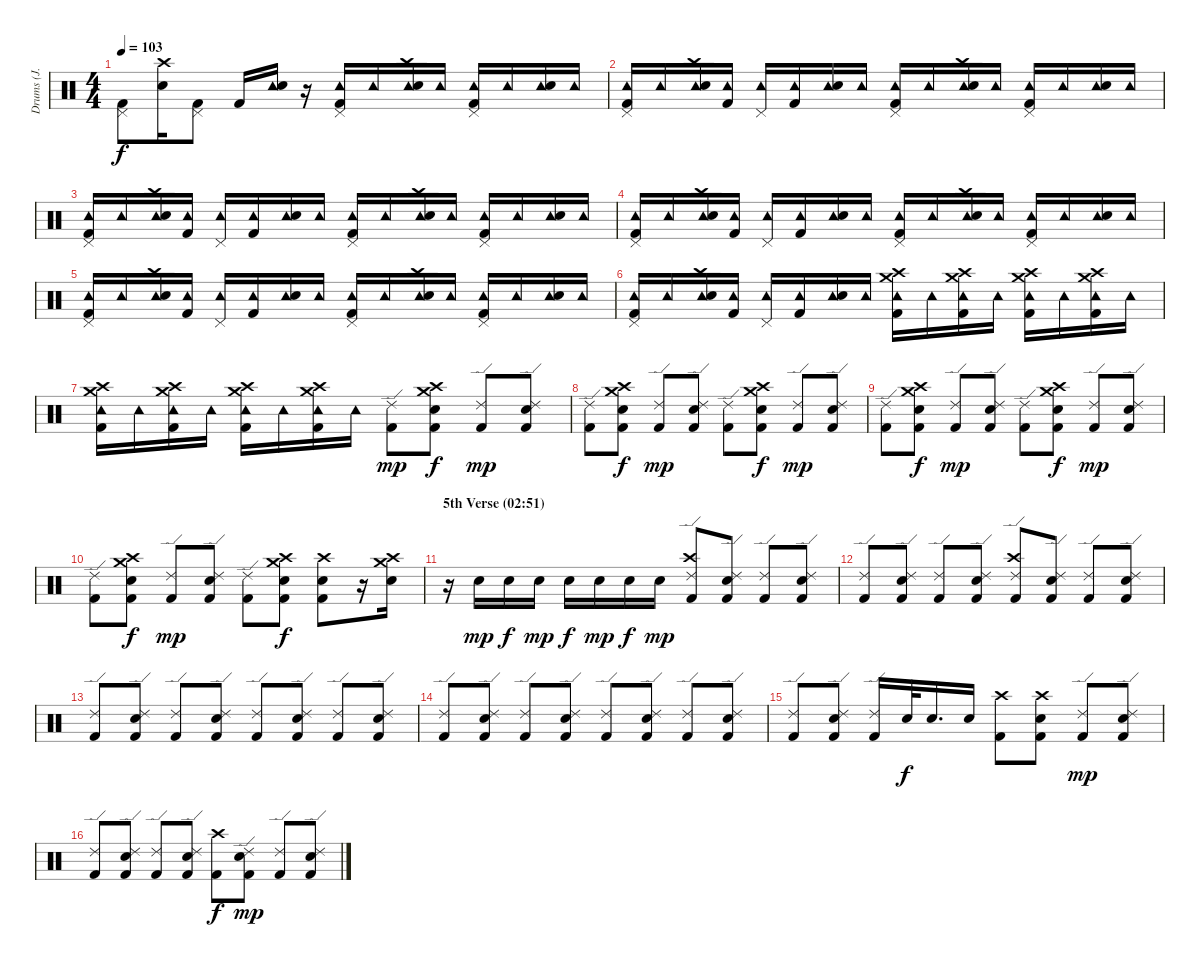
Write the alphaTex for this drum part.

\track ("Drums (J. Cramer)" "Drums (J. ") {instrument percussion}
\staff {score}
\articulation defaults
\ts (4 4)
\tempo 103
\clef neutral
\ks c
("Pedal Hi-Hat (hit)" "Kick (hit) 2").8{dy f} ("Electric Snare (hit)" "Crash high (hit)").16 ("Pedal Hi-Hat (hit)" "Kick (hit) 2").8 "Kick (hit) 2".16 ("Tambourine (hit)" "Electric Snare (hit)").16 r.16 ("Tambourine (hit)" "Pedal Hi-Hat (hit)" "Kick (hit) 2").16 "Tambourine (hit)".16 ("Tambourine (hit)" "Electric Snare (hit)" "Crash high (hit)").16 "Tambourine (hit)".16 ("Tambourine (hit)" "Pedal Hi-Hat (hit)" "Kick (hit) 2").16 "Tambourine (hit)".16 ("Tambourine (hit)" "Electric Snare (hit)").16 "Tambourine (hit)".16 |
("Tambourine (hit)" "Pedal Hi-Hat (hit)" "Kick (hit) 2").16 "Tambourine (hit)".16 ("Tambourine (hit)" "Electric Snare (hit)" "Crash high (hit)").16 ("Tambourine (hit)" "Kick (hit) 2").16 ("Tambourine (hit)" "Pedal Hi-Hat (hit)").16 ("Tambourine (hit)" "Kick (hit) 2").16 ("Tambourine (hit)" "Electric Snare (hit)").16 "Tambourine (hit)".16 ("Tambourine (hit)" "Pedal Hi-Hat (hit)" "Kick (hit) 2").16 "Tambourine (hit)".16 ("Tambourine (hit)" "Electric Snare (hit)" "Crash high (hit)").16 "Tambourine (hit)".16 ("Tambourine (hit)" "Pedal Hi-Hat (hit)" "Kick (hit) 2").16 "Tambourine (hit)".16 ("Tambourine (hit)" "Electric Snare (hit)").16 "Tambourine (hit)".16 |
("Tambourine (hit)" "Pedal Hi-Hat (hit)" "Kick (hit) 2").16 "Tambourine (hit)".16 ("Tambourine (hit)" "Electric Snare (hit)" "Crash high (hit)").16 ("Tambourine (hit)" "Kick (hit) 2").16 ("Tambourine (hit)" "Pedal Hi-Hat (hit)").16 ("Tambourine (hit)" "Kick (hit) 2").16 ("Tambourine (hit)" "Electric Snare (hit)").16 "Tambourine (hit)".16 ("Tambourine (hit)" "Pedal Hi-Hat (hit)" "Kick (hit) 2").16 "Tambourine (hit)".16 ("Tambourine (hit)" "Electric Snare (hit)" "Crash high (hit)").16 "Tambourine (hit)".16 ("Tambourine (hit)" "Pedal Hi-Hat (hit)" "Kick (hit) 2").16 "Tambourine (hit)".16 ("Tambourine (hit)" "Electric Snare (hit)").16 "Tambourine (hit)".16 |
("Tambourine (hit)" "Pedal Hi-Hat (hit)" "Kick (hit) 2").16 "Tambourine (hit)".16 ("Tambourine (hit)" "Electric Snare (hit)" "Crash high (hit)").16 ("Tambourine (hit)" "Kick (hit) 2").16 ("Tambourine (hit)" "Pedal Hi-Hat (hit)").16 ("Tambourine (hit)" "Kick (hit) 2").16 ("Tambourine (hit)" "Electric Snare (hit)").16 "Tambourine (hit)".16 ("Tambourine (hit)" "Pedal Hi-Hat (hit)" "Kick (hit) 2").16 "Tambourine (hit)".16 ("Tambourine (hit)" "Electric Snare (hit)" "Crash high (hit)").16 "Tambourine (hit)".16 ("Tambourine (hit)" "Pedal Hi-Hat (hit)" "Kick (hit) 2").16 "Tambourine (hit)".16 ("Tambourine (hit)" "Electric Snare (hit)").16 "Tambourine (hit)".16 |
("Tambourine (hit)" "Pedal Hi-Hat (hit)" "Kick (hit) 2").16 "Tambourine (hit)".16 ("Tambourine (hit)" "Electric Snare (hit)" "Crash high (hit)").16 ("Tambourine (hit)" "Kick (hit) 2").16 ("Tambourine (hit)" "Pedal Hi-Hat (hit)").16 ("Tambourine (hit)" "Kick (hit) 2").16 ("Tambourine (hit)" "Electric Snare (hit)").16 "Tambourine (hit)".16 ("Tambourine (hit)" "Pedal Hi-Hat (hit)" "Kick (hit) 2").16 "Tambourine (hit)".16 ("Tambourine (hit)" "Electric Snare (hit)" "Crash high (hit)").16 "Tambourine (hit)".16 ("Tambourine (hit)" "Pedal Hi-Hat (hit)" "Kick (hit) 2").16 "Tambourine (hit)".16 ("Tambourine (hit)" "Electric Snare (hit)").16 "Tambourine (hit)".16 |
("Tambourine (hit)" "Pedal Hi-Hat (hit)" "Kick (hit) 2").16 "Tambourine (hit)".16 ("Tambourine (hit)" "Electric Snare (hit)" "Crash high (hit)").16 ("Tambourine (hit)" "Kick (hit) 2").16 ("Tambourine (hit)" "Pedal Hi-Hat (hit)").16 ("Tambourine (hit)" "Kick (hit) 2").16 ("Tambourine (hit)" "Electric Snare (hit)").16 "Tambourine (hit)".16 ("Tambourine (hit)" "Crash medium (hit)" "Kick (hit) 2" "Crash high (hit)").16 "Tambourine (hit)".16 ("Tambourine (hit)" "Crash medium (hit)" "Kick (hit) 2" "Crash high (hit)").16 "Tambourine (hit)".16 ("Tambourine (hit)" "Crash medium (hit)" "Kick (hit) 2" "Crash high (hit)").16 "Tambourine (hit)".16 ("Tambourine (hit)" "Crash medium (hit)" "Kick (hit) 2" "Crash high (hit)").16 "Tambourine (hit)".16 |
("Tambourine (hit)" "Crash medium (hit)" "Kick (hit) 2" "Crash high (hit)").16 "Tambourine (hit)".16 ("Tambourine (hit)" "Crash medium (hit)" "Kick (hit) 2" "Crash high (hit)").16 "Tambourine (hit)".16 ("Tambourine (hit)" "Crash medium (hit)" "Kick (hit) 2" "Crash high (hit)").16 "Tambourine (hit)".16 ("Tambourine (hit)" "Crash medium (hit)" "Kick (hit) 2" "Crash high (hit)").16 "Tambourine (hit)".16 ("Kick (hit) 2" "Ride (edge) 2").8{dy mp} ("Crash high (hit)" "Electric Snare (hit)" "Kick (hit) 2" "Crash medium (hit)").8{dy f} ("Kick (hit) 2" "Ride (edge) 2").8{dy mp} ("Electric Snare (hit)" "Kick (hit) 2" "Ride (edge) 2").8 |
("Ride (edge) 2" "Kick (hit) 2").8 ("Crash high (hit)" "Electric Snare (hit)" "Kick (hit) 2" "Crash medium (hit)").8{dy f} ("Ride (edge) 2" "Kick (hit) 2").8{dy mp} ("Ride (edge) 2" "Electric Snare (hit)" "Kick (hit) 2").8 ("Ride (edge) 2" "Kick (hit) 2").8 ("Crash high (hit)" "Electric Snare (hit)" "Kick (hit) 2" "Crash medium (hit)").8{dy f} ("Ride (edge) 2" "Kick (hit) 2").8{dy mp} ("Ride (edge) 2" "Electric Snare (hit)" "Kick (hit) 2").8 |
("Ride (edge) 2" "Kick (hit) 2").8 ("Crash high (hit)" "Electric Snare (hit)" "Kick (hit) 2" "Crash medium (hit)").8{dy f} ("Ride (edge) 2" "Kick (hit) 2").8{dy mp} ("Ride (edge) 2" "Electric Snare (hit)" "Kick (hit) 2").8 ("Ride (edge) 2" "Kick (hit) 2").8 ("Crash high (hit)" "Electric Snare (hit)" "Kick (hit) 2" "Crash medium (hit)").8{dy f} ("Ride (edge) 2" "Kick (hit) 2").8{dy mp} ("Ride (edge) 2" "Electric Snare (hit)" "Kick (hit) 2").8 |
("Ride (edge) 2" "Kick (hit) 2").8 ("Crash high (hit)" "Electric Snare (hit)" "Kick (hit) 2" "Crash medium (hit)").8{dy f} ("Ride (edge) 2" "Kick (hit) 2").8{dy mp} ("Ride (edge) 2" "Electric Snare (hit)" "Kick (hit) 2").8 ("Ride (edge) 2" "Kick (hit) 2").8 ("Crash high (hit)" "Electric Snare (hit)" "Kick (hit) 2" "Crash medium (hit)").8{dy f} ("Crash high (hit)" "Electric Snare (hit)" "Kick (hit) 2").8 r.16 ("Crash high (hit)" "Crash medium (hit)" "Electric Snare (hit)").16 |
\section ("" "5th Verse (02:51)")
r.16 "Electric Snare (hit)".16{dy mp} "Electric Snare (hit)".16{dy f} "Electric Snare (hit)".16{dy mp} "Electric Snare (hit)".16{dy f} "Electric Snare (hit)".16{dy mp} "Electric Snare (hit)".16{dy f} "Electric Snare (hit)".16{dy mp} ("Crash high (hit)" "Ride (edge) 2" "Kick (hit) 2").8 ("Ride (edge) 2" "Electric Snare (hit)" "Kick (hit) 2").8 ("Ride (edge) 2" "Kick (hit) 2").8 ("Ride (edge) 2" "Electric Snare (hit)" "Kick (hit) 2").8 |
("Ride (edge) 2" "Kick (hit) 2").8 ("Ride (edge) 2" "Electric Snare (hit)" "Kick (hit) 2").8 ("Ride (edge) 2" "Kick (hit) 2").8 ("Ride (edge) 2" "Electric Snare (hit)" "Kick (hit) 2").8 ("Crash high (hit)" "Ride (edge) 2" "Kick (hit) 2").8 ("Ride (edge) 2" "Electric Snare (hit)" "Kick (hit) 2").8 ("Ride (edge) 2" "Kick (hit) 2").8 ("Ride (edge) 2" "Electric Snare (hit)" "Kick (hit) 2").8 |
("Ride (edge) 2" "Kick (hit) 2").8 ("Ride (edge) 2" "Electric Snare (hit)" "Kick (hit) 2").8 ("Ride (edge) 2" "Kick (hit) 2").8 ("Ride (edge) 2" "Electric Snare (hit)" "Kick (hit) 2").8 ("Ride (edge) 2" "Kick (hit) 2").8 ("Ride (edge) 2" "Electric Snare (hit)" "Kick (hit) 2").8 ("Ride (edge) 2" "Kick (hit) 2").8 ("Ride (edge) 2" "Electric Snare (hit)" "Kick (hit) 2").8 |
("Ride (edge) 2" "Kick (hit) 2").8 ("Ride (edge) 2" "Electric Snare (hit)" "Kick (hit) 2").8 ("Ride (edge) 2" "Kick (hit) 2").8 ("Ride (edge) 2" "Electric Snare (hit)" "Kick (hit) 2").8 ("Ride (edge) 2" "Kick (hit) 2").8 ("Ride (edge) 2" "Electric Snare (hit)" "Kick (hit) 2").8 ("Ride (edge) 2" "Kick (hit) 2").8 ("Ride (edge) 2" "Electric Snare (hit)" "Kick (hit) 2").8 |
("Ride (edge) 2" "Kick (hit) 2").8 ("Ride (edge) 2" "Electric Snare (hit)" "Kick (hit) 2").8 ("Ride (edge) 2" "Kick (hit) 2").16 "Electric Snare (hit)".32{dy f} "Electric Snare (hit)".16{d} "Electric Snare (hit)".16 ("Crash high (hit)" "Kick (hit) 2").8 ("Crash high (hit)" "Electric Snare (hit)" "Kick (hit) 2").8 ("Ride (edge) 2" "Kick (hit) 2").8{dy mp} ("Ride (edge) 2" "Electric Snare (hit)" "Kick (hit) 2").8 |
("Ride (edge) 2" "Kick (hit) 2").8 ("Ride (edge) 2" "Electric Snare (hit)" "Kick (hit) 2").8 ("Ride (edge) 2" "Kick (hit) 2").8 ("Ride (edge) 2" "Electric Snare (hit)" "Kick (hit) 2").8 ("Crash high (hit)" "Kick (hit) 2").8{dy f} ("Ride (edge) 2" "Electric Snare (hit)" "Kick (hit) 2").8{dy mp} ("Ride (edge) 2" "Kick (hit) 2").8 ("Ride (edge) 2" "Electric Snare (hit)" "Kick (hit) 2").8
